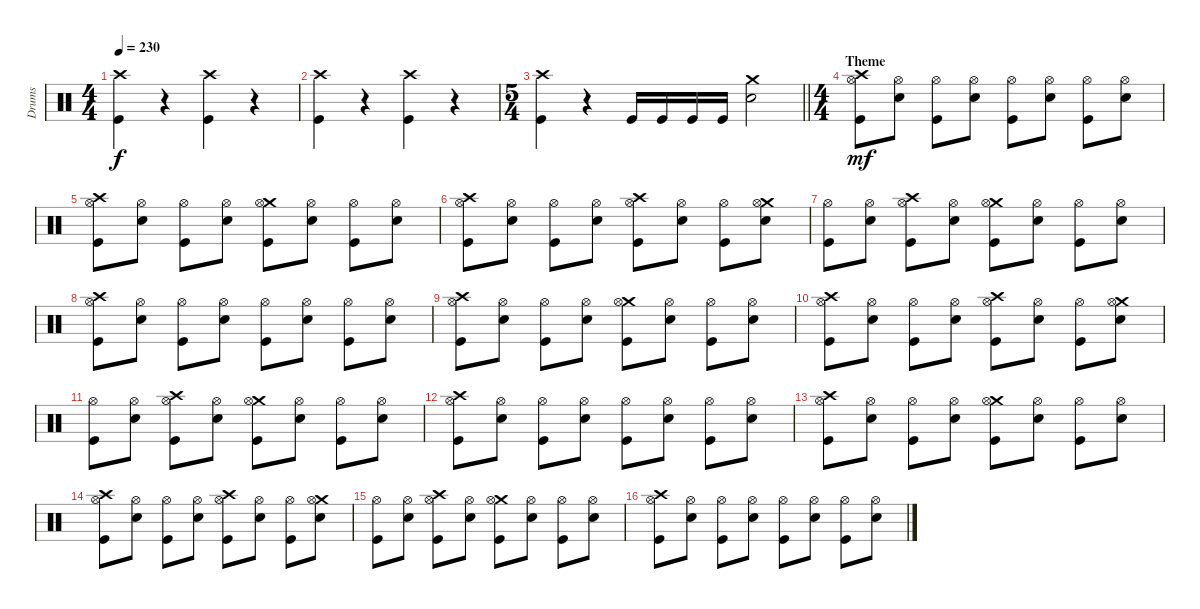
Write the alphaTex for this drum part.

\track ("Drums" "Drums") {instrument percussion}
\staff {score}
\articulation defaults
\ts (4 4)
\tempo 230
\clef neutral
\ks c
("Crash high (hit)" "Kick (hit)").4{dy f} r.4 ("Crash high (hit)" "Kick (hit)").4 r.4 |
("Crash high (hit)" "Kick (hit)").4 r.4 ("Crash high (hit)" "Kick (hit)").4 r.4 |
\ts (5 4)
\barLineRight lightlight
("Crash high (hit)" "Kick (hit)").4 r.4 "Kick (hit)".16 "Kick (hit)".16 "Kick (hit)".16 "Kick (hit)".16 ("Crash medium (hit)" "Electric Snare (hit)").2 |
\ts (4 4)
\section ("" "Theme")
("Crash high (hit)" "Hi-Hat (open)" "Kick (hit)").8{dy mf} ("Hi-Hat (open)" "Electric Snare (hit)").8 ("Hi-Hat (open)" "Kick (hit)").8 ("Hi-Hat (open)" "Electric Snare (hit)").8 ("Hi-Hat (open)" "Kick (hit)").8 ("Hi-Hat (open)" "Electric Snare (hit)").8 ("Hi-Hat (open)" "Kick (hit)").8 ("Hi-Hat (open)" "Electric Snare (hit)").8 |
("Crash high (hit)" "Hi-Hat (open)" "Kick (hit)").8 ("Hi-Hat (open)" "Electric Snare (hit)").8 ("Hi-Hat (open)" "Kick (hit)").8 ("Hi-Hat (open)" "Electric Snare (hit)").8 ("Crash medium (hit)" "Hi-Hat (open)" "Kick (hit)").8 ("Hi-Hat (open)" "Electric Snare (hit)").8 ("Hi-Hat (open)" "Kick (hit)").8 ("Hi-Hat (open)" "Electric Snare (hit)").8 |
("Crash high (hit)" "Hi-Hat (open)" "Kick (hit)").8 ("Hi-Hat (open)" "Electric Snare (hit)").8 ("Hi-Hat (open)" "Kick (hit)").8 ("Hi-Hat (open)" "Electric Snare (hit)").8 ("Crash high (hit)" "Hi-Hat (open)" "Kick (hit)").8 ("Hi-Hat (open)" "Electric Snare (hit)").8 ("Hi-Hat (open)" "Kick (hit)").8 ("Crash medium (hit)" "Hi-Hat (open)" "Electric Snare (hit)").8 |
("Hi-Hat (open)" "Kick (hit)").8 ("Hi-Hat (open)" "Electric Snare (hit)").8 ("Crash high (hit)" "Hi-Hat (open)" "Kick (hit)").8 ("Hi-Hat (open)" "Electric Snare (hit)").8 ("Crash medium (hit)" "Hi-Hat (open)" "Kick (hit)").8 ("Hi-Hat (open)" "Electric Snare (hit)").8 ("Hi-Hat (open)" "Kick (hit)").8 ("Hi-Hat (open)" "Electric Snare (hit)").8 |
("Crash high (hit)" "Hi-Hat (open)" "Kick (hit)").8 ("Hi-Hat (open)" "Electric Snare (hit)").8 ("Hi-Hat (open)" "Kick (hit)").8 ("Hi-Hat (open)" "Electric Snare (hit)").8 ("Hi-Hat (open)" "Kick (hit)").8 ("Hi-Hat (open)" "Electric Snare (hit)").8 ("Hi-Hat (open)" "Kick (hit)").8 ("Hi-Hat (open)" "Electric Snare (hit)").8 |
("Crash high (hit)" "Hi-Hat (open)" "Kick (hit)").8 ("Hi-Hat (open)" "Electric Snare (hit)").8 ("Hi-Hat (open)" "Kick (hit)").8 ("Hi-Hat (open)" "Electric Snare (hit)").8 ("Crash medium (hit)" "Hi-Hat (open)" "Kick (hit)").8 ("Hi-Hat (open)" "Electric Snare (hit)").8 ("Hi-Hat (open)" "Kick (hit)").8 ("Hi-Hat (open)" "Electric Snare (hit)").8 |
("Crash high (hit)" "Hi-Hat (open)" "Kick (hit)").8 ("Hi-Hat (open)" "Electric Snare (hit)").8 ("Hi-Hat (open)" "Kick (hit)").8 ("Hi-Hat (open)" "Electric Snare (hit)").8 ("Crash high (hit)" "Hi-Hat (open)" "Kick (hit)").8 ("Hi-Hat (open)" "Electric Snare (hit)").8 ("Hi-Hat (open)" "Kick (hit)").8 ("Crash medium (hit)" "Hi-Hat (open)" "Electric Snare (hit)").8 |
("Hi-Hat (open)" "Kick (hit)").8 ("Hi-Hat (open)" "Electric Snare (hit)").8 ("Crash high (hit)" "Hi-Hat (open)" "Kick (hit)").8 ("Hi-Hat (open)" "Electric Snare (hit)").8 ("Crash medium (hit)" "Hi-Hat (open)" "Kick (hit)").8 ("Hi-Hat (open)" "Electric Snare (hit)").8 ("Hi-Hat (open)" "Kick (hit)").8 ("Hi-Hat (open)" "Electric Snare (hit)").8 |
("Crash high (hit)" "Hi-Hat (open)" "Kick (hit)").8 ("Hi-Hat (open)" "Electric Snare (hit)").8 ("Hi-Hat (open)" "Kick (hit)").8 ("Hi-Hat (open)" "Electric Snare (hit)").8 ("Hi-Hat (open)" "Kick (hit)").8 ("Hi-Hat (open)" "Electric Snare (hit)").8 ("Hi-Hat (open)" "Kick (hit)").8 ("Hi-Hat (open)" "Electric Snare (hit)").8 |
("Crash high (hit)" "Hi-Hat (open)" "Kick (hit)").8 ("Hi-Hat (open)" "Electric Snare (hit)").8 ("Hi-Hat (open)" "Kick (hit)").8 ("Hi-Hat (open)" "Electric Snare (hit)").8 ("Crash medium (hit)" "Hi-Hat (open)" "Kick (hit)").8 ("Hi-Hat (open)" "Electric Snare (hit)").8 ("Hi-Hat (open)" "Kick (hit)").8 ("Hi-Hat (open)" "Electric Snare (hit)").8 |
("Crash high (hit)" "Hi-Hat (open)" "Kick (hit)").8 ("Hi-Hat (open)" "Electric Snare (hit)").8 ("Hi-Hat (open)" "Kick (hit)").8 ("Hi-Hat (open)" "Electric Snare (hit)").8 ("Crash high (hit)" "Hi-Hat (open)" "Kick (hit)").8 ("Hi-Hat (open)" "Electric Snare (hit)").8 ("Hi-Hat (open)" "Kick (hit)").8 ("Crash medium (hit)" "Hi-Hat (open)" "Electric Snare (hit)").8 |
("Hi-Hat (open)" "Kick (hit)").8 ("Hi-Hat (open)" "Electric Snare (hit)").8 ("Crash high (hit)" "Hi-Hat (open)" "Kick (hit)").8 ("Hi-Hat (open)" "Electric Snare (hit)").8 ("Crash medium (hit)" "Hi-Hat (open)" "Kick (hit)").8 ("Hi-Hat (open)" "Electric Snare (hit)").8 ("Hi-Hat (open)" "Kick (hit)").8 ("Hi-Hat (open)" "Electric Snare (hit)").8 |
("Crash high (hit)" "Hi-Hat (open)" "Kick (hit)").8 ("Hi-Hat (open)" "Electric Snare (hit)").8 ("Hi-Hat (open)" "Kick (hit)").8 ("Hi-Hat (open)" "Electric Snare (hit)").8 ("Hi-Hat (open)" "Kick (hit)").8 ("Hi-Hat (open)" "Electric Snare (hit)").8 ("Hi-Hat (open)" "Kick (hit)").8 ("Hi-Hat (open)" "Electric Snare (hit)").8
